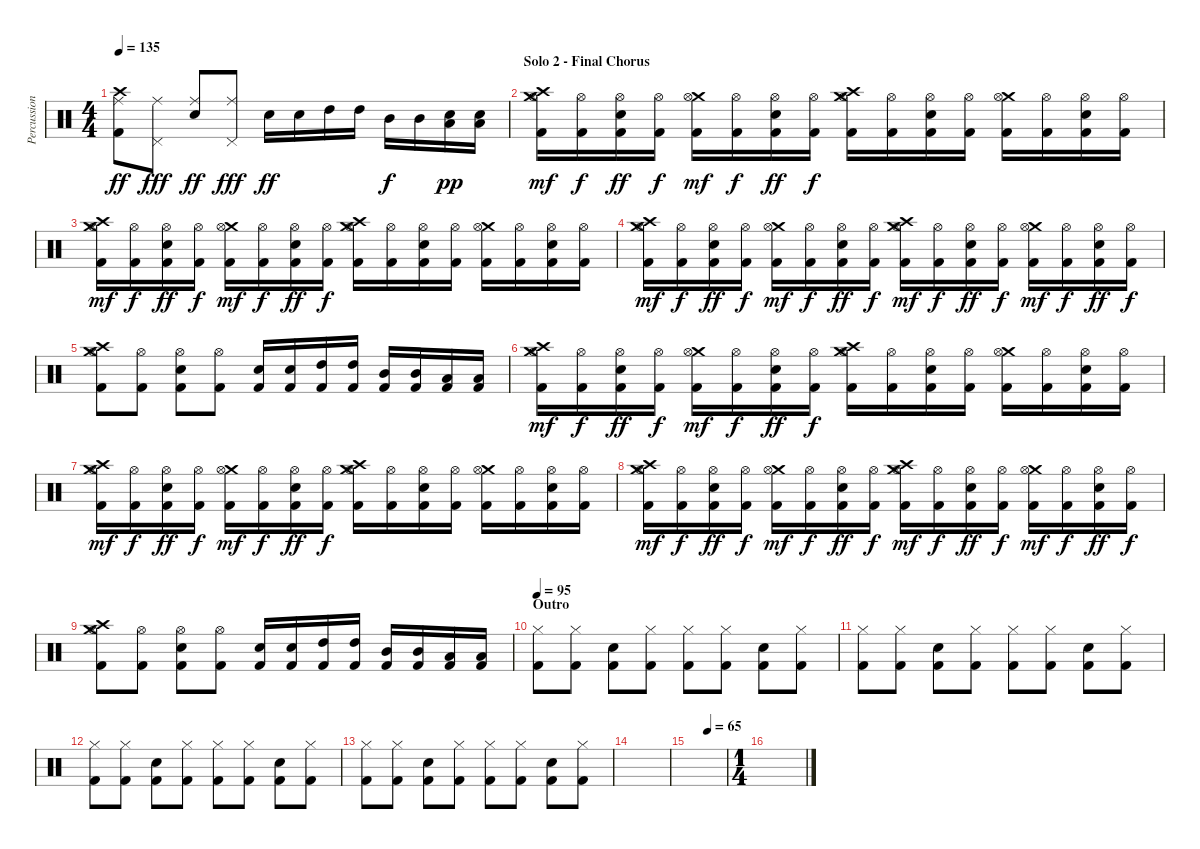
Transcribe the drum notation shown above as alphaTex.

\track ("Percussion" "Percussion") {instrument percussion}
\staff {score}
\articulation defaults
\ts (4 4)
\tempo 135
\clef neutral
\ks c
("Crash high (hit)" "Ride (middle)" "Kick (hit) 2").8{dy ff} ("Ride (middle)" "Pedal Hi-Hat (hit)").8{dy fff} ("Ride (middle)" "Electric Snare (hit)").8{dy ff} ("Ride (middle)" "Pedal Hi-Hat (hit)").8{dy fff} "Electric Snare (hit)".16{dy ff} "Electric Snare (hit)".16 "High Tom (hit)".16 "High Tom (hit)".16 "Mid Tom (hit)".16{dy f} "Mid Tom (hit)".16 ("Low Tom (hit)" "Electric Snare (hit)").16{dy pp} ("Low Tom (hit)" "Electric Snare (hit)").16 |
\section ("" "Solo 2 - Final Chorus")
("Crash high (hit)" "Crash medium (hit)" "Hi-Hat (open)" "Kick (hit) 2").16{dy mf} ("Hi-Hat (open)" "Kick (hit) 2").16{dy f} ("Hi-Hat (open)" "Electric Snare (hit)" "Kick (hit) 2").16{dy ff} ("Hi-Hat (open)" "Kick (hit) 2").16{dy f} ("Crash medium (hit)" "Hi-Hat (open)" "Kick (hit) 2").16{dy mf} ("Hi-Hat (open)" "Kick (hit) 2").16{dy f} ("Hi-Hat (open)" "Electric Snare (hit)" "Kick (hit) 2").16{dy ff} ("Hi-Hat (open)" "Kick (hit) 2").16{dy f} ("Crash high (hit)" "Crash medium (hit)" "Hi-Hat (open)" "Kick (hit) 2").16 ("Hi-Hat (open)" "Kick (hit) 2").16 ("Hi-Hat (open)" "Electric Snare (hit)" "Kick (hit) 2").16 ("Hi-Hat (open)" "Kick (hit) 2").16 ("Crash medium (hit)" "Hi-Hat (open)" "Kick (hit) 2").16 ("Hi-Hat (open)" "Kick (hit) 2").16 ("Hi-Hat (open)" "Electric Snare (hit)" "Kick (hit) 2").16 ("Hi-Hat (open)" "Kick (hit) 2").16 |
("Crash high (hit)" "Crash medium (hit)" "Hi-Hat (open)" "Kick (hit) 2").16{dy mf} ("Hi-Hat (open)" "Kick (hit) 2").16{dy f} ("Hi-Hat (open)" "Electric Snare (hit)" "Kick (hit) 2").16{dy ff} ("Hi-Hat (open)" "Kick (hit) 2").16{dy f} ("Crash medium (hit)" "Hi-Hat (open)" "Kick (hit) 2").16{dy mf} ("Hi-Hat (open)" "Kick (hit) 2").16{dy f} ("Hi-Hat (open)" "Electric Snare (hit)" "Kick (hit) 2").16{dy ff} ("Hi-Hat (open)" "Kick (hit) 2").16{dy f} ("Crash high (hit)" "Crash medium (hit)" "Hi-Hat (open)" "Kick (hit) 2").16 ("Hi-Hat (open)" "Kick (hit) 2").16 ("Hi-Hat (open)" "Electric Snare (hit)" "Kick (hit) 2").16 ("Hi-Hat (open)" "Kick (hit) 2").16 ("Crash medium (hit)" "Hi-Hat (open)" "Kick (hit) 2").16 ("Hi-Hat (open)" "Kick (hit) 2").16 ("Hi-Hat (open)" "Electric Snare (hit)" "Kick (hit) 2").16 ("Hi-Hat (open)" "Kick (hit) 2").16 |
("Crash high (hit)" "Crash medium (hit)" "Hi-Hat (open)" "Kick (hit) 2").16{dy mf} ("Hi-Hat (open)" "Kick (hit) 2").16{dy f} ("Hi-Hat (open)" "Electric Snare (hit)" "Kick (hit) 2").16{dy ff} ("Hi-Hat (open)" "Kick (hit) 2").16{dy f} ("Crash medium (hit)" "Hi-Hat (open)" "Kick (hit) 2").16{dy mf} ("Hi-Hat (open)" "Kick (hit) 2").16{dy f} ("Hi-Hat (open)" "Electric Snare (hit)" "Kick (hit) 2").16{dy ff} ("Hi-Hat (open)" "Kick (hit) 2").16{dy f} ("Crash high (hit)" "Crash medium (hit)" "Hi-Hat (open)" "Kick (hit) 2").16{dy mf} ("Hi-Hat (open)" "Kick (hit) 2").16{dy f} ("Hi-Hat (open)" "Electric Snare (hit)" "Kick (hit) 2").16{dy ff} ("Hi-Hat (open)" "Kick (hit) 2").16{dy f} ("Crash medium (hit)" "Hi-Hat (open)" "Kick (hit) 2").16{dy mf} ("Hi-Hat (open)" "Kick (hit) 2").16{dy f} ("Hi-Hat (open)" "Electric Snare (hit)" "Kick (hit) 2").16{dy ff} ("Hi-Hat (open)" "Kick (hit) 2").16{dy f} |
("Crash high (hit)" "Crash medium (hit)" "Hi-Hat (open)" "Kick (hit) 2").8 ("Hi-Hat (open)" "Kick (hit) 2").8 ("Hi-Hat (open)" "Electric Snare (hit)" "Kick (hit) 2").8 ("Hi-Hat (open)" "Kick (hit) 2").8 ("Electric Snare (hit)" "Kick (hit) 2").16 ("Electric Snare (hit)" "Kick (hit) 2").16 ("High Tom (hit)" "Kick (hit) 2").16 ("High Tom (hit)" "Kick (hit) 2").16 ("Mid Tom (hit)" "Kick (hit) 2").16 ("Mid Tom (hit)" "Kick (hit) 2").16 ("Low Tom (hit)" "Kick (hit) 2").16 ("Low Tom (hit)" "Kick (hit) 2").16 |
("Crash high (hit)" "Crash medium (hit)" "Hi-Hat (open)" "Kick (hit) 2").16{dy mf} ("Hi-Hat (open)" "Kick (hit) 2").16{dy f} ("Hi-Hat (open)" "Electric Snare (hit)" "Kick (hit) 2").16{dy ff} ("Hi-Hat (open)" "Kick (hit) 2").16{dy f} ("Crash medium (hit)" "Hi-Hat (open)" "Kick (hit) 2").16{dy mf} ("Hi-Hat (open)" "Kick (hit) 2").16{dy f} ("Hi-Hat (open)" "Electric Snare (hit)" "Kick (hit) 2").16{dy ff} ("Hi-Hat (open)" "Kick (hit) 2").16{dy f} ("Crash high (hit)" "Crash medium (hit)" "Hi-Hat (open)" "Kick (hit) 2").16 ("Hi-Hat (open)" "Kick (hit) 2").16 ("Hi-Hat (open)" "Electric Snare (hit)" "Kick (hit) 2").16 ("Hi-Hat (open)" "Kick (hit) 2").16 ("Crash medium (hit)" "Hi-Hat (open)" "Kick (hit) 2").16 ("Hi-Hat (open)" "Kick (hit) 2").16 ("Hi-Hat (open)" "Electric Snare (hit)" "Kick (hit) 2").16 ("Hi-Hat (open)" "Kick (hit) 2").16 |
("Crash high (hit)" "Crash medium (hit)" "Hi-Hat (open)" "Kick (hit) 2").16{dy mf} ("Hi-Hat (open)" "Kick (hit) 2").16{dy f} ("Hi-Hat (open)" "Electric Snare (hit)" "Kick (hit) 2").16{dy ff} ("Hi-Hat (open)" "Kick (hit) 2").16{dy f} ("Crash medium (hit)" "Hi-Hat (open)" "Kick (hit) 2").16{dy mf} ("Hi-Hat (open)" "Kick (hit) 2").16{dy f} ("Hi-Hat (open)" "Electric Snare (hit)" "Kick (hit) 2").16{dy ff} ("Hi-Hat (open)" "Kick (hit) 2").16{dy f} ("Crash high (hit)" "Crash medium (hit)" "Hi-Hat (open)" "Kick (hit) 2").16 ("Hi-Hat (open)" "Kick (hit) 2").16 ("Hi-Hat (open)" "Electric Snare (hit)" "Kick (hit) 2").16 ("Hi-Hat (open)" "Kick (hit) 2").16 ("Crash medium (hit)" "Hi-Hat (open)" "Kick (hit) 2").16 ("Hi-Hat (open)" "Kick (hit) 2").16 ("Hi-Hat (open)" "Electric Snare (hit)" "Kick (hit) 2").16 ("Hi-Hat (open)" "Kick (hit) 2").16 |
("Crash high (hit)" "Crash medium (hit)" "Hi-Hat (open)" "Kick (hit) 2").16{dy mf} ("Hi-Hat (open)" "Kick (hit) 2").16{dy f} ("Hi-Hat (open)" "Electric Snare (hit)" "Kick (hit) 2").16{dy ff} ("Hi-Hat (open)" "Kick (hit) 2").16{dy f} ("Crash medium (hit)" "Hi-Hat (open)" "Kick (hit) 2").16{dy mf} ("Hi-Hat (open)" "Kick (hit) 2").16{dy f} ("Hi-Hat (open)" "Electric Snare (hit)" "Kick (hit) 2").16{dy ff} ("Hi-Hat (open)" "Kick (hit) 2").16{dy f} ("Crash high (hit)" "Crash medium (hit)" "Hi-Hat (open)" "Kick (hit) 2").16{dy mf} ("Hi-Hat (open)" "Kick (hit) 2").16{dy f} ("Hi-Hat (open)" "Electric Snare (hit)" "Kick (hit) 2").16{dy ff} ("Hi-Hat (open)" "Kick (hit) 2").16{dy f} ("Crash medium (hit)" "Hi-Hat (open)" "Kick (hit) 2").16{dy mf} ("Hi-Hat (open)" "Kick (hit) 2").16{dy f} ("Hi-Hat (open)" "Electric Snare (hit)" "Kick (hit) 2").16{dy ff} ("Hi-Hat (open)" "Kick (hit) 2").16{dy f} |
("Crash high (hit)" "Crash medium (hit)" "Hi-Hat (open)" "Kick (hit) 2").8 ("Hi-Hat (open)" "Kick (hit) 2").8 ("Hi-Hat (open)" "Electric Snare (hit)" "Kick (hit) 2").8 ("Hi-Hat (open)" "Kick (hit) 2").8 ("Electric Snare (hit)" "Kick (hit) 2").16 ("Electric Snare (hit)" "Kick (hit) 2").16 ("High Tom (hit)" "Kick (hit) 2").16 ("High Tom (hit)" "Kick (hit) 2").16 ("Mid Tom (hit)" "Kick (hit) 2").16 ("Mid Tom (hit)" "Kick (hit) 2").16 ("Low Tom (hit)" "Kick (hit) 2").16 ("Low Tom (hit)" "Kick (hit) 2").16 |
\section ("" "Outro")
\tempo 95
("Hi-Hat (closed)" "Kick (hit) 2").8{volume 2} ("Hi-Hat (closed)" "Kick (hit) 2").8 ("Electric Snare (hit)" "Kick (hit) 2").8 ("Hi-Hat (closed)" "Kick (hit) 2").8 ("Hi-Hat (closed)" "Kick (hit) 2").8 ("Hi-Hat (closed)" "Kick (hit) 2").8 ("Electric Snare (hit)" "Kick (hit) 2").8 ("Hi-Hat (closed)" "Kick (hit) 2").8 |
("Hi-Hat (closed)" "Kick (hit) 2").8 ("Hi-Hat (closed)" "Kick (hit) 2").8 ("Electric Snare (hit)" "Kick (hit) 2").8 ("Hi-Hat (closed)" "Kick (hit) 2").8 ("Hi-Hat (closed)" "Kick (hit) 2").8 ("Hi-Hat (closed)" "Kick (hit) 2").8 ("Electric Snare (hit)" "Kick (hit) 2").8 ("Hi-Hat (closed)" "Kick (hit) 2").8 |
("Hi-Hat (closed)" "Kick (hit) 2").8 ("Hi-Hat (closed)" "Kick (hit) 2").8 ("Electric Snare (hit)" "Kick (hit) 2").8 ("Hi-Hat (closed)" "Kick (hit) 2").8 ("Hi-Hat (closed)" "Kick (hit) 2").8 ("Hi-Hat (closed)" "Kick (hit) 2").8 ("Electric Snare (hit)" "Kick (hit) 2").8 ("Hi-Hat (closed)" "Kick (hit) 2").8 |
("Hi-Hat (closed)" "Kick (hit) 2").8 ("Hi-Hat (closed)" "Kick (hit) 2").8 ("Electric Snare (hit)" "Kick (hit) 2").8 ("Hi-Hat (closed)" "Kick (hit) 2").8 ("Hi-Hat (closed)" "Kick (hit) 2").8 ("Hi-Hat (closed)" "Kick (hit) 2").8 ("Electric Snare (hit)" "Kick (hit) 2").8 ("Hi-Hat (closed)" "Kick (hit) 2").8 |
|
\tempo (65 0.5)
|
\ts (1 4)
